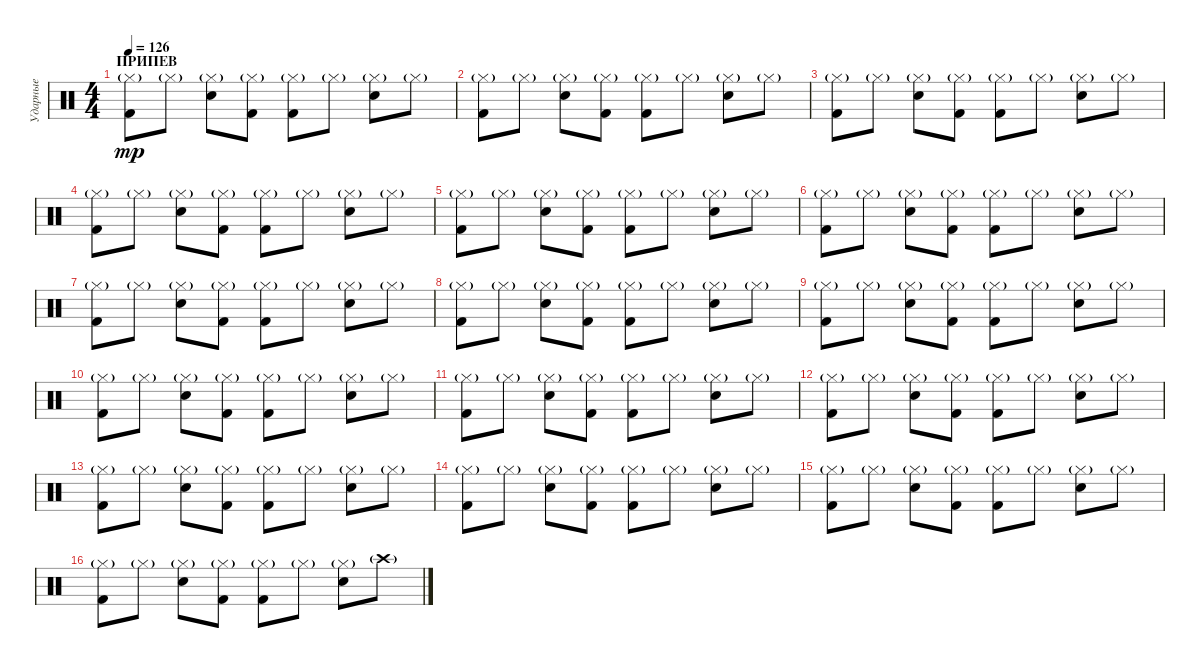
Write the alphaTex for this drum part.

\track ("Ударные" "Ударные") {instrument percussion}
\staff {score}
\articulation defaults
\ts (4 4)
\section ("" "ПРИПЕВ")
\tempo 126
\clef neutral
\ks c
("Hi-Hat (closed)"{g} "Kick (hit) 2").8{dy mp} "Hi-Hat (closed)"{g}.8 ("Hi-Hat (closed)"{g} "Snare (hit) 2").8 ("Hi-Hat (closed)"{g} "Kick (hit) 2").8 ("Hi-Hat (closed)"{g} "Kick (hit) 2").8 "Hi-Hat (closed)"{g}.8 ("Hi-Hat (closed)"{g} "Snare (hit) 2").8 "Hi-Hat (closed)"{g}.8 |
("Hi-Hat (closed)"{g} "Kick (hit) 2").8 "Hi-Hat (closed)"{g}.8 ("Hi-Hat (closed)"{g} "Snare (hit) 2").8 ("Hi-Hat (closed)"{g} "Kick (hit) 2").8 ("Hi-Hat (closed)"{g} "Kick (hit) 2").8 "Hi-Hat (closed)"{g}.8 ("Hi-Hat (closed)"{g} "Snare (hit) 2").8 "Hi-Hat (closed)"{g}.8 |
("Hi-Hat (closed)"{g} "Kick (hit) 2").8 "Hi-Hat (closed)"{g}.8 ("Hi-Hat (closed)"{g} "Snare (hit) 2").8 ("Hi-Hat (closed)"{g} "Kick (hit) 2").8 ("Hi-Hat (closed)"{g} "Kick (hit) 2").8 "Hi-Hat (closed)"{g}.8 ("Hi-Hat (closed)"{g} "Snare (hit) 2").8 "Hi-Hat (closed)"{g}.8 |
("Hi-Hat (closed)"{g} "Kick (hit) 2").8 "Hi-Hat (closed)"{g}.8 ("Hi-Hat (closed)"{g} "Snare (hit) 2").8 ("Hi-Hat (closed)"{g} "Kick (hit) 2").8 ("Hi-Hat (closed)"{g} "Kick (hit) 2").8 "Hi-Hat (closed)"{g}.8 ("Hi-Hat (closed)"{g} "Snare (hit) 2").8 "Hi-Hat (closed)"{g}.8 |
("Hi-Hat (closed)"{g} "Kick (hit) 2").8 "Hi-Hat (closed)"{g}.8 ("Hi-Hat (closed)"{g} "Snare (hit) 2").8 ("Hi-Hat (closed)"{g} "Kick (hit) 2").8 ("Hi-Hat (closed)"{g} "Kick (hit) 2").8 "Hi-Hat (closed)"{g}.8 ("Hi-Hat (closed)"{g} "Snare (hit) 2").8 "Hi-Hat (closed)"{g}.8 |
("Hi-Hat (closed)"{g} "Kick (hit) 2").8 "Hi-Hat (closed)"{g}.8 ("Hi-Hat (closed)"{g} "Snare (hit) 2").8 ("Hi-Hat (closed)"{g} "Kick (hit) 2").8 ("Hi-Hat (closed)"{g} "Kick (hit) 2").8 "Hi-Hat (closed)"{g}.8 ("Hi-Hat (closed)"{g} "Snare (hit) 2").8 "Hi-Hat (closed)"{g}.8 |
("Hi-Hat (closed)"{g} "Kick (hit) 2").8 "Hi-Hat (closed)"{g}.8 ("Hi-Hat (closed)"{g} "Snare (hit) 2").8 ("Hi-Hat (closed)"{g} "Kick (hit) 2").8 ("Hi-Hat (closed)"{g} "Kick (hit) 2").8 "Hi-Hat (closed)"{g}.8 ("Hi-Hat (closed)"{g} "Snare (hit) 2").8 "Hi-Hat (closed)"{g}.8 |
("Hi-Hat (closed)"{g} "Kick (hit) 2").8 "Hi-Hat (closed)"{g}.8 ("Hi-Hat (closed)"{g} "Snare (hit) 2").8 ("Hi-Hat (closed)"{g} "Kick (hit) 2").8 ("Hi-Hat (closed)"{g} "Kick (hit) 2").8 "Hi-Hat (closed)"{g}.8 ("Hi-Hat (closed)"{g} "Snare (hit) 2").8 "Hi-Hat (closed)"{g}.8 |
("Hi-Hat (closed)"{g} "Kick (hit) 2").8 "Hi-Hat (closed)"{g}.8 ("Hi-Hat (closed)"{g} "Snare (hit) 2").8 ("Hi-Hat (closed)"{g} "Kick (hit) 2").8 ("Hi-Hat (closed)"{g} "Kick (hit) 2").8 "Hi-Hat (closed)"{g}.8 ("Hi-Hat (closed)"{g} "Snare (hit) 2").8 "Hi-Hat (closed)"{g}.8 |
("Hi-Hat (closed)"{g} "Kick (hit) 2").8 "Hi-Hat (closed)"{g}.8 ("Hi-Hat (closed)"{g} "Snare (hit) 2").8 ("Hi-Hat (closed)"{g} "Kick (hit) 2").8 ("Hi-Hat (closed)"{g} "Kick (hit) 2").8 "Hi-Hat (closed)"{g}.8 ("Hi-Hat (closed)"{g} "Snare (hit) 2").8 "Hi-Hat (closed)"{g}.8 |
("Hi-Hat (closed)"{g} "Kick (hit) 2").8 "Hi-Hat (closed)"{g}.8 ("Hi-Hat (closed)"{g} "Snare (hit) 2").8 ("Hi-Hat (closed)"{g} "Kick (hit) 2").8 ("Hi-Hat (closed)"{g} "Kick (hit) 2").8 "Hi-Hat (closed)"{g}.8 ("Hi-Hat (closed)"{g} "Snare (hit) 2").8 "Hi-Hat (closed)"{g}.8 |
("Hi-Hat (closed)"{g} "Kick (hit) 2").8 "Hi-Hat (closed)"{g}.8 ("Hi-Hat (closed)"{g} "Snare (hit) 2").8 ("Hi-Hat (closed)"{g} "Kick (hit) 2").8 ("Hi-Hat (closed)"{g} "Kick (hit) 2").8 "Hi-Hat (closed)"{g}.8 ("Hi-Hat (closed)"{g} "Snare (hit) 2").8 "Hi-Hat (closed)"{g}.8 |
("Hi-Hat (closed)"{g} "Kick (hit) 2").8 "Hi-Hat (closed)"{g}.8 ("Hi-Hat (closed)"{g} "Snare (hit) 2").8 ("Hi-Hat (closed)"{g} "Kick (hit) 2").8 ("Hi-Hat (closed)"{g} "Kick (hit) 2").8 "Hi-Hat (closed)"{g}.8 ("Hi-Hat (closed)"{g} "Snare (hit) 2").8 "Hi-Hat (closed)"{g}.8 |
("Hi-Hat (closed)"{g} "Kick (hit) 2").8 "Hi-Hat (closed)"{g}.8 ("Hi-Hat (closed)"{g} "Snare (hit) 2").8 ("Hi-Hat (closed)"{g} "Kick (hit) 2").8 ("Hi-Hat (closed)"{g} "Kick (hit) 2").8 "Hi-Hat (closed)"{g}.8 ("Hi-Hat (closed)"{g} "Snare (hit) 2").8 "Hi-Hat (closed)"{g}.8 |
("Hi-Hat (closed)"{g} "Kick (hit) 2").8 "Hi-Hat (closed)"{g}.8 ("Hi-Hat (closed)"{g} "Snare (hit) 2").8 ("Hi-Hat (closed)"{g} "Kick (hit) 2").8 ("Hi-Hat (closed)"{g} "Kick (hit) 2").8 "Hi-Hat (closed)"{g}.8 ("Hi-Hat (closed)"{g} "Snare (hit) 2").8 "Hi-Hat (closed)"{g}.8 |
("Hi-Hat (closed)"{g} "Kick (hit) 2").8 "Hi-Hat (closed)"{g}.8 ("Hi-Hat (closed)"{g} "Snare (hit) 2").8 ("Hi-Hat (closed)"{g} "Kick (hit) 2").8 ("Hi-Hat (closed)"{g} "Kick (hit) 2").8 "Hi-Hat (closed)"{g}.8 ("Hi-Hat (closed)"{g} "Snare (hit) 2").8 "Crash high (hit)"{g}.8
